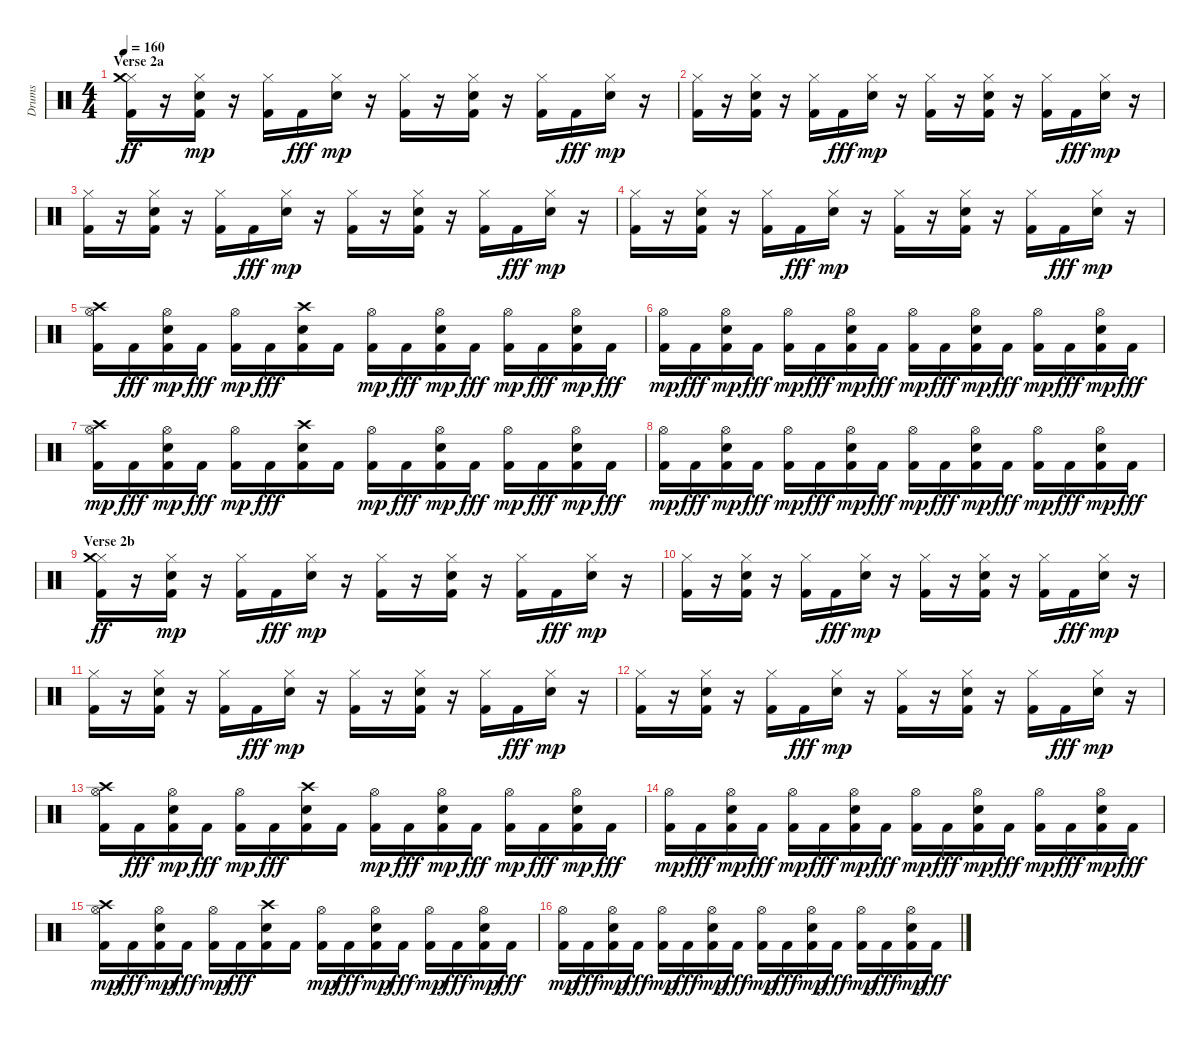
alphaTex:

\track ("Drums" "Drums") {instrument percussion}
\staff {score}
\articulation defaults
\ts (4 4)
\section ("" "Verse 2a")
\tempo 160
\clef neutral
\ks c
("Kick (hit) 2" "Hi-Hat (closed)" "Crash medium (hit)").16{dy ff} r.16 ("Kick (hit) 2" "Hi-Hat (closed)" "Snare (hit) 2").16{dy mp} r.16 ("Kick (hit) 2" "Hi-Hat (closed)").16 "Kick (hit) 2".16{dy fff} ("Hi-Hat (closed)" "Snare (hit) 2").16{dy mp} r.16 ("Kick (hit) 2" "Hi-Hat (closed)").16 r.16 ("Kick (hit) 2" "Hi-Hat (closed)" "Snare (hit) 2").16 r.16 ("Kick (hit) 2" "Hi-Hat (closed)").16 "Kick (hit) 2".16{dy fff} ("Hi-Hat (closed)" "Snare (hit) 2").16{dy mp} r.16 |
("Kick (hit) 2" "Hi-Hat (closed)").16 r.16 ("Kick (hit) 2" "Hi-Hat (closed)" "Snare (hit) 2").16 r.16 ("Kick (hit) 2" "Hi-Hat (closed)").16 "Kick (hit) 2".16{dy fff} ("Hi-Hat (closed)" "Snare (hit) 2").16{dy mp} r.16 ("Kick (hit) 2" "Hi-Hat (closed)").16 r.16 ("Kick (hit) 2" "Hi-Hat (closed)" "Snare (hit) 2").16 r.16 ("Kick (hit) 2" "Hi-Hat (closed)").16 "Kick (hit) 2".16{dy fff} ("Hi-Hat (closed)" "Snare (hit) 2").16{dy mp} r.16 |
("Kick (hit) 2" "Hi-Hat (closed)").16 r.16 ("Kick (hit) 2" "Hi-Hat (closed)" "Snare (hit) 2").16 r.16 ("Kick (hit) 2" "Hi-Hat (closed)").16 "Kick (hit) 2".16{dy fff} ("Hi-Hat (closed)" "Snare (hit) 2").16{dy mp} r.16 ("Kick (hit) 2" "Hi-Hat (closed)").16 r.16 ("Kick (hit) 2" "Hi-Hat (closed)" "Snare (hit) 2").16 r.16 ("Kick (hit) 2" "Hi-Hat (closed)").16 "Kick (hit) 2".16{dy fff} ("Hi-Hat (closed)" "Snare (hit) 2").16{dy mp} r.16 |
("Kick (hit) 2" "Hi-Hat (closed)").16 r.16 ("Kick (hit) 2" "Hi-Hat (closed)" "Snare (hit) 2").16 r.16 ("Kick (hit) 2" "Hi-Hat (closed)").16 "Kick (hit) 2".16{dy fff} ("Hi-Hat (closed)" "Snare (hit) 2").16{dy mp} r.16 ("Kick (hit) 2" "Hi-Hat (closed)").16 r.16 ("Kick (hit) 2" "Hi-Hat (closed)" "Snare (hit) 2").16 r.16 ("Kick (hit) 2" "Hi-Hat (closed)").16 "Kick (hit) 2".16{dy fff} ("Hi-Hat (closed)" "Snare (hit) 2").16{dy mp} r.16 |
("Kick (hit) 2" "Hi-Hat (open)" "Crash high (hit)").16 "Kick (hit) 2".16{dy fff} ("Kick (hit) 2" "Hi-Hat (open)" "Snare (hit) 2").16{dy mp} "Kick (hit) 2".16{dy fff} ("Kick (hit) 2" "Hi-Hat (open)").16{dy mp} "Kick (hit) 2".16{dy fff} ("Kick (hit) 2" "Snare (hit) 2" "Crash high (hit)").16 "Kick (hit) 2".16 ("Kick (hit) 2" "Hi-Hat (open)").16{dy mp} "Kick (hit) 2".16{dy fff} ("Kick (hit) 2" "Hi-Hat (open)" "Snare (hit) 2").16{dy mp} "Kick (hit) 2".16{dy fff} ("Kick (hit) 2" "Hi-Hat (open)").16{dy mp} "Kick (hit) 2".16{dy fff} ("Kick (hit) 2" "Hi-Hat (open)" "Snare (hit) 2").16{dy mp} "Kick (hit) 2".16{dy fff} |
("Kick (hit) 2" "Hi-Hat (open)").16{dy mp} "Kick (hit) 2".16{dy fff} ("Kick (hit) 2" "Hi-Hat (open)" "Snare (hit) 2").16{dy mp} "Kick (hit) 2".16{dy fff} ("Kick (hit) 2" "Hi-Hat (open)").16{dy mp} "Kick (hit) 2".16{dy fff} ("Kick (hit) 2" "Hi-Hat (open)" "Snare (hit) 2").16{dy mp} "Kick (hit) 2".16{dy fff} ("Kick (hit) 2" "Hi-Hat (open)").16{dy mp} "Kick (hit) 2".16{dy fff} ("Kick (hit) 2" "Hi-Hat (open)" "Snare (hit) 2").16{dy mp} "Kick (hit) 2".16{dy fff} ("Kick (hit) 2" "Hi-Hat (open)").16{dy mp} "Kick (hit) 2".16{dy fff} ("Kick (hit) 2" "Hi-Hat (open)" "Snare (hit) 2").16{dy mp} "Kick (hit) 2".16{dy fff} |
("Kick (hit) 2" "Hi-Hat (open)" "Crash high (hit)").16{dy mp} "Kick (hit) 2".16{dy fff} ("Kick (hit) 2" "Hi-Hat (open)" "Snare (hit) 2").16{dy mp} "Kick (hit) 2".16{dy fff} ("Kick (hit) 2" "Hi-Hat (open)").16{dy mp} "Kick (hit) 2".16{dy fff} ("Kick (hit) 2" "Snare (hit) 2" "Crash high (hit)").16 "Kick (hit) 2".16 ("Kick (hit) 2" "Hi-Hat (open)").16{dy mp} "Kick (hit) 2".16{dy fff} ("Kick (hit) 2" "Hi-Hat (open)" "Snare (hit) 2").16{dy mp} "Kick (hit) 2".16{dy fff} ("Kick (hit) 2" "Hi-Hat (open)").16{dy mp} "Kick (hit) 2".16{dy fff} ("Kick (hit) 2" "Hi-Hat (open)" "Snare (hit) 2").16{dy mp} "Kick (hit) 2".16{dy fff} |
("Kick (hit) 2" "Hi-Hat (open)").16{dy mp} "Kick (hit) 2".16{dy fff} ("Kick (hit) 2" "Hi-Hat (open)" "Snare (hit) 2").16{dy mp} "Kick (hit) 2".16{dy fff} ("Kick (hit) 2" "Hi-Hat (open)").16{dy mp} "Kick (hit) 2".16{dy fff} ("Kick (hit) 2" "Hi-Hat (open)" "Snare (hit) 2").16{dy mp} "Kick (hit) 2".16{dy fff} ("Kick (hit) 2" "Hi-Hat (open)").16{dy mp} "Kick (hit) 2".16{dy fff} ("Kick (hit) 2" "Hi-Hat (open)" "Snare (hit) 2").16{dy mp} "Kick (hit) 2".16{dy fff} ("Kick (hit) 2" "Hi-Hat (open)").16{dy mp} "Kick (hit) 2".16{dy fff} ("Kick (hit) 2" "Hi-Hat (open)" "Snare (hit) 2").16{dy mp} "Kick (hit) 2".16{dy fff} |
\section ("" "Verse 2b")
("Kick (hit) 2" "Hi-Hat (closed)" "Crash medium (hit)").16{dy ff} r.16 ("Kick (hit) 2" "Hi-Hat (closed)" "Snare (hit) 2").16{dy mp} r.16 ("Kick (hit) 2" "Hi-Hat (closed)").16 "Kick (hit) 2".16{dy fff} ("Hi-Hat (closed)" "Snare (hit) 2").16{dy mp} r.16 ("Kick (hit) 2" "Hi-Hat (closed)").16 r.16 ("Kick (hit) 2" "Hi-Hat (closed)" "Snare (hit) 2").16 r.16 ("Kick (hit) 2" "Hi-Hat (closed)").16 "Kick (hit) 2".16{dy fff} ("Hi-Hat (closed)" "Snare (hit) 2").16{dy mp} r.16 |
("Kick (hit) 2" "Hi-Hat (closed)").16 r.16 ("Kick (hit) 2" "Hi-Hat (closed)" "Snare (hit) 2").16 r.16 ("Kick (hit) 2" "Hi-Hat (closed)").16 "Kick (hit) 2".16{dy fff} ("Hi-Hat (closed)" "Snare (hit) 2").16{dy mp} r.16 ("Kick (hit) 2" "Hi-Hat (closed)").16 r.16 ("Kick (hit) 2" "Hi-Hat (closed)" "Snare (hit) 2").16 r.16 ("Kick (hit) 2" "Hi-Hat (closed)").16 "Kick (hit) 2".16{dy fff} ("Hi-Hat (closed)" "Snare (hit) 2").16{dy mp} r.16 |
("Kick (hit) 2" "Hi-Hat (closed)").16 r.16 ("Kick (hit) 2" "Hi-Hat (closed)" "Snare (hit) 2").16 r.16 ("Kick (hit) 2" "Hi-Hat (closed)").16 "Kick (hit) 2".16{dy fff} ("Hi-Hat (closed)" "Snare (hit) 2").16{dy mp} r.16 ("Kick (hit) 2" "Hi-Hat (closed)").16 r.16 ("Kick (hit) 2" "Hi-Hat (closed)" "Snare (hit) 2").16 r.16 ("Kick (hit) 2" "Hi-Hat (closed)").16 "Kick (hit) 2".16{dy fff} ("Hi-Hat (closed)" "Snare (hit) 2").16{dy mp} r.16 |
("Kick (hit) 2" "Hi-Hat (closed)").16 r.16 ("Kick (hit) 2" "Hi-Hat (closed)" "Snare (hit) 2").16 r.16 ("Kick (hit) 2" "Hi-Hat (closed)").16 "Kick (hit) 2".16{dy fff} ("Hi-Hat (closed)" "Snare (hit) 2").16{dy mp} r.16 ("Kick (hit) 2" "Hi-Hat (closed)").16 r.16 ("Kick (hit) 2" "Hi-Hat (closed)" "Snare (hit) 2").16 r.16 ("Kick (hit) 2" "Hi-Hat (closed)").16 "Kick (hit) 2".16{dy fff} ("Hi-Hat (closed)" "Snare (hit) 2").16{dy mp} r.16 |
("Kick (hit) 2" "Hi-Hat (open)" "Crash high (hit)").16 "Kick (hit) 2".16{dy fff} ("Kick (hit) 2" "Hi-Hat (open)" "Snare (hit) 2").16{dy mp} "Kick (hit) 2".16{dy fff} ("Kick (hit) 2" "Hi-Hat (open)").16{dy mp} "Kick (hit) 2".16{dy fff} ("Kick (hit) 2" "Snare (hit) 2" "Crash high (hit)").16 "Kick (hit) 2".16 ("Kick (hit) 2" "Hi-Hat (open)").16{dy mp} "Kick (hit) 2".16{dy fff} ("Kick (hit) 2" "Hi-Hat (open)" "Snare (hit) 2").16{dy mp} "Kick (hit) 2".16{dy fff} ("Kick (hit) 2" "Hi-Hat (open)").16{dy mp} "Kick (hit) 2".16{dy fff} ("Kick (hit) 2" "Hi-Hat (open)" "Snare (hit) 2").16{dy mp} "Kick (hit) 2".16{dy fff} |
("Kick (hit) 2" "Hi-Hat (open)").16{dy mp} "Kick (hit) 2".16{dy fff} ("Kick (hit) 2" "Hi-Hat (open)" "Snare (hit) 2").16{dy mp} "Kick (hit) 2".16{dy fff} ("Kick (hit) 2" "Hi-Hat (open)").16{dy mp} "Kick (hit) 2".16{dy fff} ("Kick (hit) 2" "Hi-Hat (open)" "Snare (hit) 2").16{dy mp} "Kick (hit) 2".16{dy fff} ("Kick (hit) 2" "Hi-Hat (open)").16{dy mp} "Kick (hit) 2".16{dy fff} ("Kick (hit) 2" "Hi-Hat (open)" "Snare (hit) 2").16{dy mp} "Kick (hit) 2".16{dy fff} ("Kick (hit) 2" "Hi-Hat (open)").16{dy mp} "Kick (hit) 2".16{dy fff} ("Kick (hit) 2" "Hi-Hat (open)" "Snare (hit) 2").16{dy mp} "Kick (hit) 2".16{dy fff} |
("Kick (hit) 2" "Hi-Hat (open)" "Crash high (hit)").16{dy mp} "Kick (hit) 2".16{dy fff} ("Kick (hit) 2" "Hi-Hat (open)" "Snare (hit) 2").16{dy mp} "Kick (hit) 2".16{dy fff} ("Kick (hit) 2" "Hi-Hat (open)").16{dy mp} "Kick (hit) 2".16{dy fff} ("Kick (hit) 2" "Snare (hit) 2" "Crash high (hit)").16 "Kick (hit) 2".16 ("Kick (hit) 2" "Hi-Hat (open)").16{dy mp} "Kick (hit) 2".16{dy fff} ("Kick (hit) 2" "Hi-Hat (open)" "Snare (hit) 2").16{dy mp} "Kick (hit) 2".16{dy fff} ("Kick (hit) 2" "Hi-Hat (open)").16{dy mp} "Kick (hit) 2".16{dy fff} ("Kick (hit) 2" "Hi-Hat (open)" "Snare (hit) 2").16{dy mp} "Kick (hit) 2".16{dy fff} |
("Kick (hit) 2" "Hi-Hat (open)").16{dy mp} "Kick (hit) 2".16{dy fff} ("Kick (hit) 2" "Hi-Hat (open)" "Snare (hit) 2").16{dy mp} "Kick (hit) 2".16{dy fff} ("Kick (hit) 2" "Hi-Hat (open)").16{dy mp} "Kick (hit) 2".16{dy fff} ("Kick (hit) 2" "Hi-Hat (open)" "Snare (hit) 2").16{dy mp} "Kick (hit) 2".16{dy fff} ("Kick (hit) 2" "Hi-Hat (open)").16{dy mp} "Kick (hit) 2".16{dy fff} ("Kick (hit) 2" "Hi-Hat (open)" "Snare (hit) 2").16{dy mp} "Kick (hit) 2".16{dy fff} ("Kick (hit) 2" "Hi-Hat (open)").16{dy mp} "Kick (hit) 2".16{dy fff} ("Kick (hit) 2" "Hi-Hat (open)" "Snare (hit) 2").16{dy mp} "Kick (hit) 2".16{dy fff}
